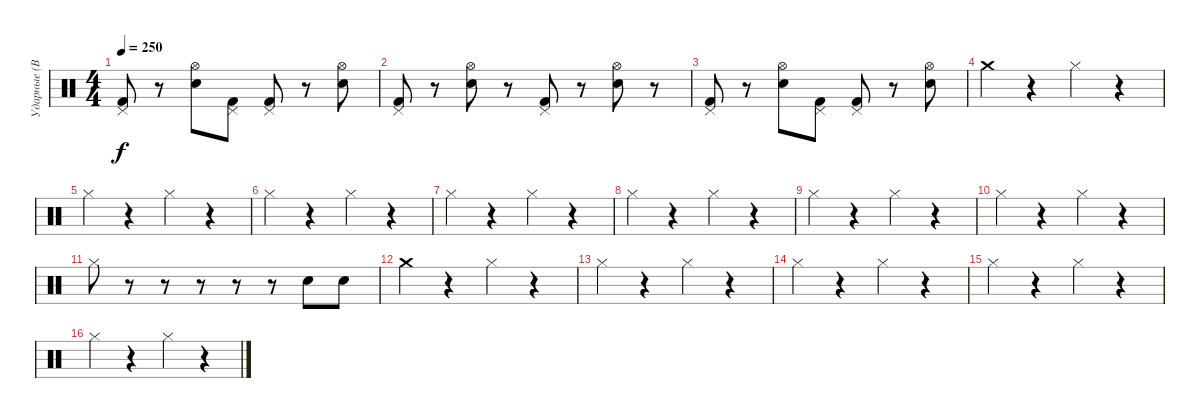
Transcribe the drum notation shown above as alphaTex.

\track ("Ударные (Вася)" "Ударные (В") {instrument percussion}
\staff {score}
\articulation defaults
\ts (4 4)
\tempo 250
\clef neutral
\ks c
("Pedal Hi-Hat (hit)" "Kick (hit) 2").8{dy f} r.8 ("Hi-Hat (open)" "Electric Snare (hit)").8 ("Pedal Hi-Hat (hit)" "Kick (hit) 2").8 ("Pedal Hi-Hat (hit)" "Kick (hit) 2").8 r.8 ("Hi-Hat (open)" "Electric Snare (hit)").8 |
("Pedal Hi-Hat (hit)" "Kick (hit) 2").8 r.8 ("Hi-Hat (open)" "Electric Snare (hit)").8 r.8 ("Pedal Hi-Hat (hit)" "Kick (hit) 2").8 r.8 ("Hi-Hat (open)" "Electric Snare (hit)").8 r.8 |
("Pedal Hi-Hat (hit)" "Kick (hit) 2").8 r.8 ("Hi-Hat (open)" "Electric Snare (hit)").8 ("Pedal Hi-Hat (hit)" "Kick (hit) 2").8 ("Pedal Hi-Hat (hit)" "Kick (hit) 2").8 r.8 ("Hi-Hat (open)" "Electric Snare (hit)").8 |
"Crash medium (hit)".4 r.4 "Hi-Hat (closed)".4 r.4 |
"Hi-Hat (closed)".4 r.4 "Hi-Hat (closed)".4 r.4 |
"Hi-Hat (closed)".4 r.4 "Hi-Hat (closed)".4 r.4 |
"Hi-Hat (closed)".4 r.4 "Hi-Hat (closed)".4 r.4 |
"Hi-Hat (closed)".4 r.4 "Hi-Hat (closed)".4 r.4 |
"Hi-Hat (closed)".4 r.4 "Hi-Hat (closed)".4 r.4 |
"Hi-Hat (closed)".4 r.4 "Hi-Hat (closed)".4 r.4 |
"Hi-Hat (closed)".8 r.8 r.8 r.8 r.8 r.8 "Electric Snare (hit)".8 "Snare (hit) 2".8 |
"Crash medium (hit)".4 r.4 "Hi-Hat (closed)".4 r.4 |
"Hi-Hat (closed)".4 r.4 "Hi-Hat (closed)".4 r.4 |
"Hi-Hat (closed)".4 r.4 "Hi-Hat (closed)".4 r.4 |
"Hi-Hat (closed)".4 r.4 "Hi-Hat (closed)".4 r.4 |
"Hi-Hat (closed)".4 r.4 "Hi-Hat (closed)".4 r.4
